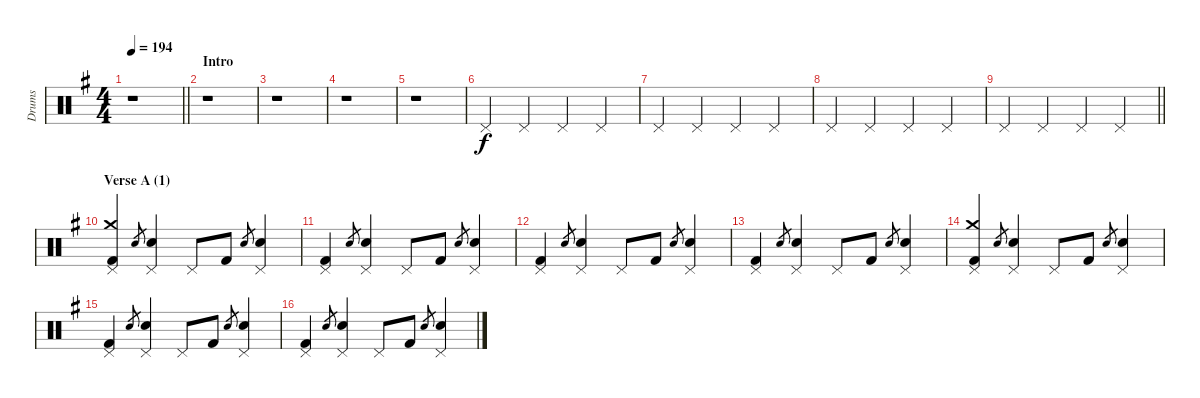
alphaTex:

\track ("Drums" "Drums") {instrument percussion}
\staff {score}
\articulation defaults
\ts (4 4)
\tempo 194
\clef neutral
\barLineRight lightlight
\ks eminor
r.1{dy f} |
\section ("" "Intro")
r.1 |
r.1 |
r.1 |
r.1 |
"Pedal Hi-Hat (hit)".4 "Pedal Hi-Hat (hit)".4 "Pedal Hi-Hat (hit)".4 "Pedal Hi-Hat (hit)".4 |
"Pedal Hi-Hat (hit)".4 "Pedal Hi-Hat (hit)".4 "Pedal Hi-Hat (hit)".4 "Pedal Hi-Hat (hit)".4 |
"Pedal Hi-Hat (hit)".4 "Pedal Hi-Hat (hit)".4 "Pedal Hi-Hat (hit)".4 "Pedal Hi-Hat (hit)".4 |
\barLineRight lightlight "Pedal Hi-Hat (hit)".4 "Pedal Hi-Hat (hit)".4 "Pedal Hi-Hat (hit)".4 "Pedal Hi-Hat (hit)".4
|
\section ("" "Verse A (1)")
("Crash medium (hit)" "Pedal Hi-Hat (hit)" "Kick (hit) 2").4 "Electric Snare (hit)".8{gr} ("Pedal Hi-Hat (hit)" "Electric Snare (hit)").4 "Pedal Hi-Hat (hit)".8 "Kick (hit) 2".8 "Electric Snare (hit)".8{gr} ("Pedal Hi-Hat (hit)" "Electric Snare (hit)").4 |
("Pedal Hi-Hat (hit)" "Kick (hit) 2").4 "Electric Snare (hit)".8{gr} ("Pedal Hi-Hat (hit)" "Electric Snare (hit)").4 "Pedal Hi-Hat (hit)".8 "Kick (hit) 2".8 "Electric Snare (hit)".8{gr} ("Pedal Hi-Hat (hit)" "Electric Snare (hit)").4 |
("Pedal Hi-Hat (hit)" "Kick (hit) 2").4 "Electric Snare (hit)".8{gr} ("Pedal Hi-Hat (hit)" "Electric Snare (hit)").4 "Pedal Hi-Hat (hit)".8 "Kick (hit) 2".8 "Electric Snare (hit)".8{gr} ("Pedal Hi-Hat (hit)" "Electric Snare (hit)").4 |
("Pedal Hi-Hat (hit)" "Kick (hit) 2").4 "Electric Snare (hit)".8{gr} ("Pedal Hi-Hat (hit)" "Electric Snare (hit)").4 "Pedal Hi-Hat (hit)".8 "Kick (hit) 2".8 "Electric Snare (hit)".8{gr} ("Pedal Hi-Hat (hit)" "Electric Snare (hit)").4 |
("Crash medium (hit)" "Pedal Hi-Hat (hit)" "Kick (hit) 2").4 "Electric Snare (hit)".8{gr} ("Pedal Hi-Hat (hit)" "Electric Snare (hit)").4 "Pedal Hi-Hat (hit)".8 "Kick (hit) 2".8 "Electric Snare (hit)".8{gr} ("Pedal Hi-Hat (hit)" "Electric Snare (hit)").4 |
("Pedal Hi-Hat (hit)" "Kick (hit) 2").4 "Electric Snare (hit)".8{gr} ("Pedal Hi-Hat (hit)" "Electric Snare (hit)").4 "Pedal Hi-Hat (hit)".8 "Kick (hit) 2".8 "Electric Snare (hit)".8{gr} ("Pedal Hi-Hat (hit)" "Electric Snare (hit)").4 |
("Pedal Hi-Hat (hit)" "Kick (hit) 2").4 "Electric Snare (hit)".8{gr} ("Pedal Hi-Hat (hit)" "Electric Snare (hit)").4 "Pedal Hi-Hat (hit)".8 "Kick (hit) 2".8 "Electric Snare (hit)".8{gr} ("Pedal Hi-Hat (hit)" "Electric Snare (hit)").4
